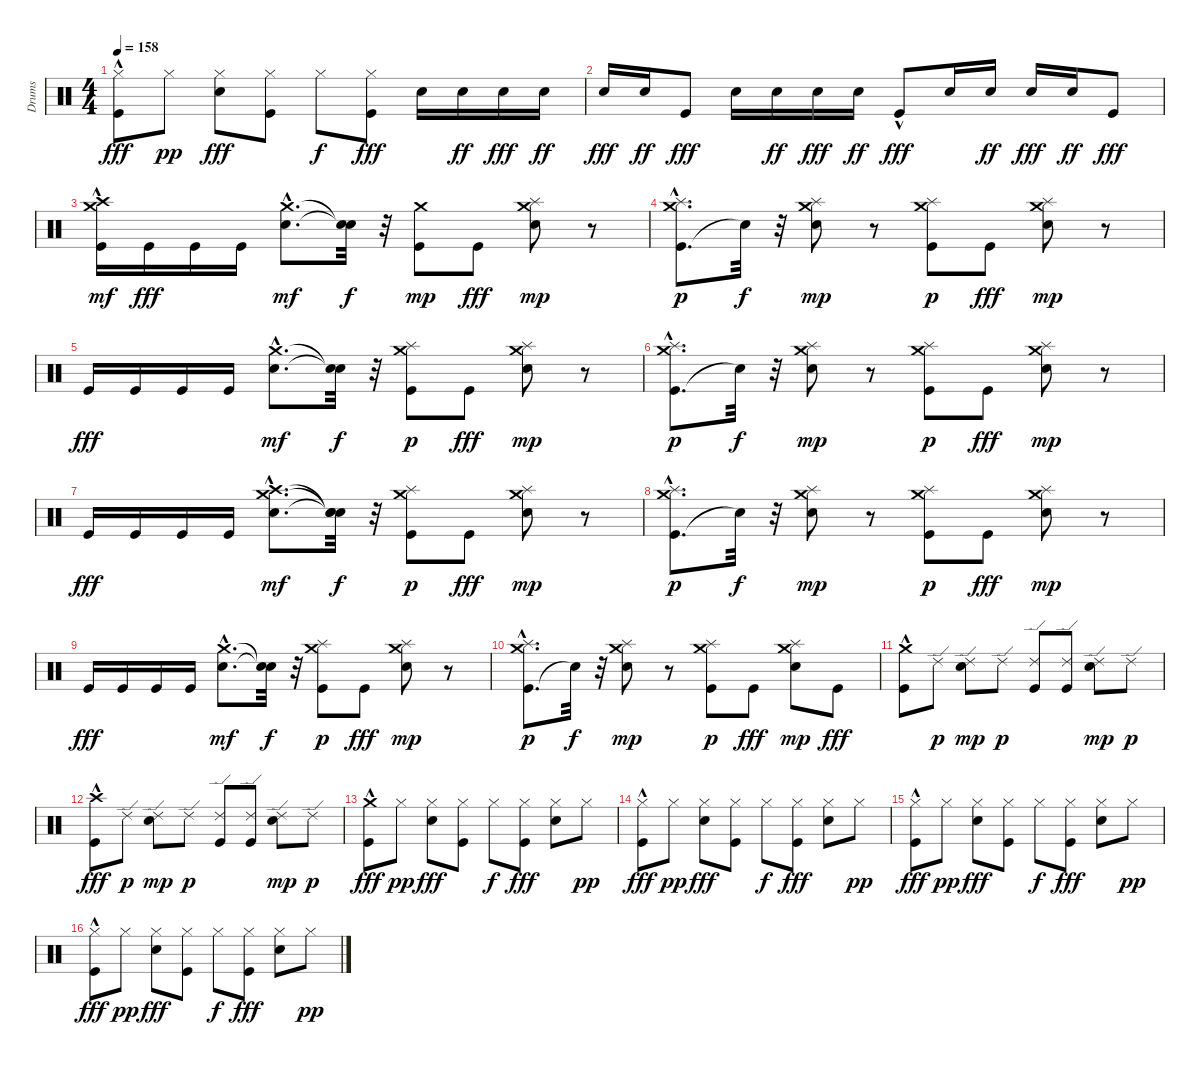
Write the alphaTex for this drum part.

\track ("Drums" "Drums") {instrument percussion}
\staff {score}
\articulation defaults
\ts (4 4)
\tempo 158
\clef neutral
\ks c
("Hi-Hat (closed)" "Kick (hit)"{hac}).8{dy fff} "Hi-Hat (closed)".8{dy pp} ("Electric Snare (hit)" "Hi-Hat (closed)").8{dy fff} ("Hi-Hat (closed)" "Kick (hit)").8 "Hi-Hat (closed)".8{dy f} ("Hi-Hat (closed)" "Kick (hit)").8{dy fff} "Electric Snare (hit)".16 "Electric Snare (hit)".16{dy ff} "Electric Snare (hit)".16{dy fff} "Electric Snare (hit)".16{dy ff} |
"Electric Snare (hit)".16{dy fff} "Electric Snare (hit)".16{dy ff} "Kick (hit)".8{dy fff} "Electric Snare (hit)".16 "Electric Snare (hit)".16{dy ff} "Electric Snare (hit)".16{dy fff} "Electric Snare (hit)".16{dy ff} "Kick (hit)"{hac}.8{dy fff} "Electric Snare (hit)".16 "Electric Snare (hit)".16{dy ff} "Electric Snare (hit)".16{dy fff} "Electric Snare (hit)".16{dy ff} "Kick (hit)".8{dy fff} |
("Kick (hit)" "Crash medium (hit)"{hac} "Crash high (hit)"{hac}).16{dy mf} "Kick (hit)".16{dy fff} "Kick (hit)".16 "Kick (hit)".16 ("Electric Snare (hit)"{hac} "Crash medium (hit)"{hac}).8{d dy mf} ("Snare (hit)"{t} "Snare (hit)"{t}).32{dy f} r.32 ("Kick (hit)" "Crash medium (hit)").8{dy mp} "Kick (hit)".8{dy fff} ("Electric Snare (hit)" "Crash medium (hit)" "Splash (hit)").8{dy mp} r.8 |
("Kick (hit)"{hac} "Splash (hit)" "Crash medium (hit)").8{d dy p} "Snare (hit)"{t}.32{dy f} r.32 ("Electric Snare (hit)" "Crash medium (hit)" "Splash (hit)").8{dy mp} r.8 ("Kick (hit)" "Splash (hit)" "Crash medium (hit)").8{dy p} "Kick (hit)".8{dy fff} ("Electric Snare (hit)" "Crash medium (hit)" "Splash (hit)").8{dy mp} r.8 |
"Kick (hit)".16{dy fff} "Kick (hit)".16 "Kick (hit)".16 "Kick (hit)".16 ("Electric Snare (hit)"{hac} "Crash medium (hit)"{hac}).8{d dy mf} ("Snare (hit)"{t} "Snare (hit)"{t}).32{dy f} r.32 ("Kick (hit)" "Splash (hit)" "Crash medium (hit)").8{dy p} "Kick (hit)".8{dy fff} ("Electric Snare (hit)" "Crash medium (hit)" "Splash (hit)").8{dy mp} r.8 |
("Kick (hit)"{hac} "Splash (hit)" "Crash medium (hit)").8{d dy p} "Snare (hit)"{t}.32{dy f} r.32 ("Electric Snare (hit)" "Crash medium (hit)" "Splash (hit)").8{dy mp} r.8 ("Kick (hit)" "Splash (hit)" "Crash medium (hit)").8{dy p} "Kick (hit)".8{dy fff} ("Electric Snare (hit)" "Crash medium (hit)" "Splash (hit)").8{dy mp} r.8 |
"Kick (hit)".16{dy fff} "Kick (hit)".16 "Kick (hit)".16 "Kick (hit)".16 ("Electric Snare (hit)"{hac} "Crash medium (hit)"{hac} "Crash high (hit)"{hac}).8{d dy mf} ("Snare (hit)"{t} "Snare (hit)"{t} "Snare (hit)"{t}).32{dy f} r.32 ("Kick (hit)" "Splash (hit)" "Crash medium (hit)").8{dy p} "Kick (hit)".8{dy fff} ("Electric Snare (hit)" "Crash medium (hit)" "Splash (hit)").8{dy mp} r.8 |
("Kick (hit)"{hac} "Splash (hit)" "Crash medium (hit)").8{d dy p} "Snare (hit)"{t}.32{dy f} r.32 ("Electric Snare (hit)" "Crash medium (hit)" "Splash (hit)").8{dy mp} r.8 ("Kick (hit)" "Splash (hit)" "Crash medium (hit)").8{dy p} "Kick (hit)".8{dy fff} ("Electric Snare (hit)" "Crash medium (hit)" "Splash (hit)").8{dy mp} r.8 |
"Kick (hit)".16{dy fff} "Kick (hit)".16 "Kick (hit)".16 "Kick (hit)".16 ("Electric Snare (hit)"{hac} "Crash medium (hit)"{hac}).8{d dy mf} ("Snare (hit)"{t} "Snare (hit)"{t}).32{dy f} r.32 ("Kick (hit)" "Splash (hit)" "Crash medium (hit)").8{dy p} "Kick (hit)".8{dy fff} ("Electric Snare (hit)" "Crash medium (hit)" "Splash (hit)").8{dy mp} r.8 |
("Kick (hit)"{hac} "Splash (hit)" "Crash medium (hit)").8{d dy p} "Snare (hit)"{t}.32{dy f} r.32 ("Electric Snare (hit)" "Crash medium (hit)" "Splash (hit)").8{dy mp} r.8 ("Kick (hit)" "Splash (hit)" "Crash medium (hit)").8{dy p} "Kick (hit)".8{dy fff} ("Electric Snare (hit)" "Crash medium (hit)" "Splash (hit)").8{dy mp} "Kick (hit)".8{dy fff} |
("Crash medium (hit)" "Kick (hit)"{hac}).8 "Ride (edge) 2".8{dy p} ("Electric Snare (hit)" "Ride (edge) 2").8{dy mp} "Ride (edge) 2".8{dy p} ("Kick (hit)" "Ride (edge) 2").8 ("Kick (hit)" "Ride (edge) 2").8 ("Electric Snare (hit)" "Ride (edge) 2").8{dy mp} "Ride (edge) 2".8{dy p} |
("Crash high (hit)" "Kick (hit)"{hac}).8{dy fff} "Ride (edge) 2".8{dy p} ("Electric Snare (hit)" "Ride (edge) 2").8{dy mp} "Ride (edge) 2".8{dy p} ("Kick (hit)" "Ride (edge) 2").8 ("Kick (hit)" "Ride (edge) 2").8 ("Electric Snare (hit)" "Ride (edge) 2").8{dy mp} "Ride (edge) 2".8{dy p} |
("Crash medium (hit)" "Kick (hit)"{hac}).8{dy fff} "Hi-Hat (closed)".8{dy pp} ("Electric Snare (hit)" "Hi-Hat (closed)").8{dy fff} ("Hi-Hat (closed)" "Kick (hit)").8 "Hi-Hat (closed)".8{dy f} ("Hi-Hat (closed)" "Kick (hit)").8{dy fff} ("Electric Snare (hit)" "Hi-Hat (closed)").8 "Hi-Hat (closed)".8{dy pp} |
("Hi-Hat (closed)" "Kick (hit)"{hac}).8{dy fff} "Hi-Hat (closed)".8{dy pp} ("Electric Snare (hit)" "Hi-Hat (closed)").8{dy fff} ("Hi-Hat (closed)" "Kick (hit)").8 "Hi-Hat (closed)".8{dy f} ("Hi-Hat (closed)" "Kick (hit)").8{dy fff} ("Electric Snare (hit)" "Hi-Hat (closed)").8 "Hi-Hat (closed)".8{dy pp} |
("Hi-Hat (closed)" "Kick (hit)"{hac}).8{dy fff} "Hi-Hat (closed)".8{dy pp} ("Electric Snare (hit)" "Hi-Hat (closed)").8{dy fff} ("Hi-Hat (closed)" "Kick (hit)").8 "Hi-Hat (closed)".8{dy f} ("Hi-Hat (closed)" "Kick (hit)").8{dy fff} ("Electric Snare (hit)" "Hi-Hat (closed)").8 "Hi-Hat (closed)".8{dy pp} |
("Hi-Hat (closed)" "Kick (hit)"{hac}).8{dy fff} "Hi-Hat (closed)".8{dy pp} ("Electric Snare (hit)" "Hi-Hat (closed)").8{dy fff} ("Hi-Hat (closed)" "Kick (hit)").8 "Hi-Hat (closed)".8{dy f} ("Hi-Hat (closed)" "Kick (hit)").8{dy fff} ("Electric Snare (hit)" "Hi-Hat (closed)").8 "Hi-Hat (closed)".8{dy pp}
